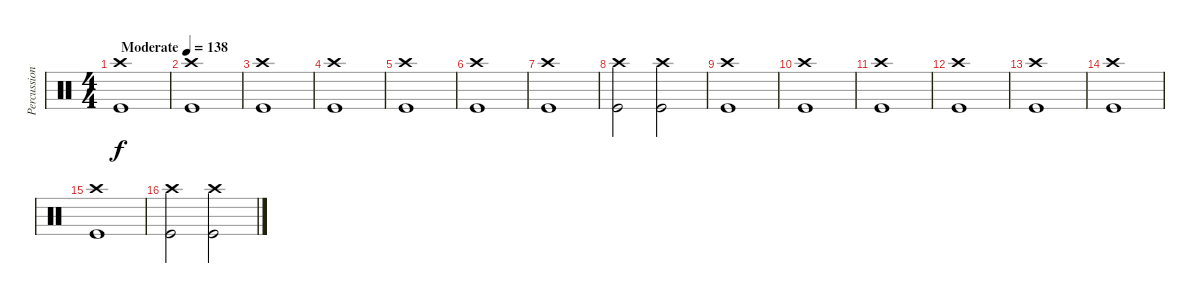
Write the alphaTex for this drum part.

\track ("Percussion" "Percussion") {instrument percussion}
\staff {score}
\articulation defaults
\ts (4 4)
\tempo (138 "Moderate")
\clef neutral
\ks c
("Crash high (hit)" "Kick (hit)").1{dy f} |
("Crash high (hit)" "Kick (hit)").1 |
("Crash high (hit)" "Kick (hit)").1 |
("Crash high (hit)" "Kick (hit)").1 |
("Crash high (hit)" "Kick (hit)").1 |
("Crash high (hit)" "Kick (hit)").1 |
("Crash high (hit)" "Kick (hit)").1 |
("Crash high (hit)" "Kick (hit)").2 ("Crash high (hit)" "Kick (hit)").2 |
("Crash high (hit)" "Kick (hit)").1 |
("Crash high (hit)" "Kick (hit)").1 |
("Crash high (hit)" "Kick (hit)").1 |
("Crash high (hit)" "Kick (hit)").1 |
("Crash high (hit)" "Kick (hit)").1 |
("Crash high (hit)" "Kick (hit)").1 |
("Crash high (hit)" "Kick (hit)").1 |
("Crash high (hit)" "Kick (hit)").2 ("Crash high (hit)" "Kick (hit)").2
